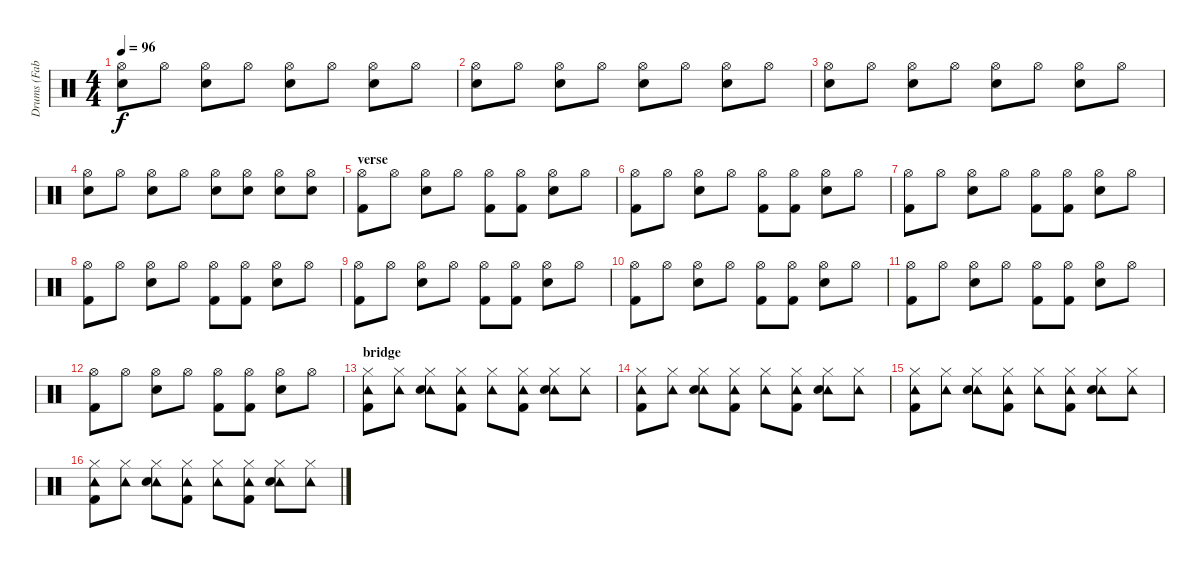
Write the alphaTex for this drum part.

\track ("Drums (Fab Moretti)" "Drums (Fab") {instrument percussion}
\staff {score}
\articulation defaults
\ts (4 4)
\tempo 96
\clef neutral
\ks c
("Hi-Hat (open)" "Snare (hit) 2").8{dy f} "Hi-Hat (open)".8 ("Hi-Hat (open)" "Snare (hit) 2").8 "Hi-Hat (open)".8 ("Hi-Hat (open)" "Snare (hit) 2").8 "Hi-Hat (open)".8 ("Hi-Hat (open)" "Snare (hit) 2").8 "Hi-Hat (open)".8 |
("Hi-Hat (open)" "Snare (hit) 2").8 "Hi-Hat (open)".8 ("Hi-Hat (open)" "Snare (hit) 2").8 "Hi-Hat (open)".8 ("Hi-Hat (open)" "Snare (hit) 2").8 "Hi-Hat (open)".8 ("Hi-Hat (open)" "Snare (hit) 2").8 "Hi-Hat (open)".8 |
("Hi-Hat (open)" "Snare (hit) 2").8 "Hi-Hat (open)".8 ("Hi-Hat (open)" "Snare (hit) 2").8 "Hi-Hat (open)".8 ("Hi-Hat (open)" "Snare (hit) 2").8 "Hi-Hat (open)".8 ("Hi-Hat (open)" "Snare (hit) 2").8 "Hi-Hat (open)".8 |
("Hi-Hat (open)" "Snare (hit) 2").8 "Hi-Hat (open)".8 ("Hi-Hat (open)" "Snare (hit) 2").8 "Hi-Hat (open)".8 ("Hi-Hat (open)" "Snare (hit) 2").8 ("Hi-Hat (open)" "Snare (hit) 2").8 ("Hi-Hat (open)" "Snare (hit) 2").8 ("Hi-Hat (open)" "Snare (hit) 2").8 |
\section ("" "verse")
("Hi-Hat (open)" "Kick (hit) 2").8 "Hi-Hat (open)".8 ("Hi-Hat (open)" "Snare (hit) 2").8 "Hi-Hat (open)".8 ("Hi-Hat (open)" "Kick (hit) 2").8 ("Hi-Hat (open)" "Kick (hit) 2").8 ("Hi-Hat (open)" "Snare (hit) 2").8 "Hi-Hat (open)".8 |
("Hi-Hat (open)" "Kick (hit) 2").8 "Hi-Hat (open)".8 ("Hi-Hat (open)" "Snare (hit) 2").8 "Hi-Hat (open)".8 ("Hi-Hat (open)" "Kick (hit) 2").8 ("Hi-Hat (open)" "Kick (hit) 2").8 ("Hi-Hat (open)" "Snare (hit) 2").8 "Hi-Hat (open)".8 |
("Hi-Hat (open)" "Kick (hit) 2").8 "Hi-Hat (open)".8 ("Hi-Hat (open)" "Snare (hit) 2").8 "Hi-Hat (open)".8 ("Hi-Hat (open)" "Kick (hit) 2").8 ("Hi-Hat (open)" "Kick (hit) 2").8 ("Hi-Hat (open)" "Snare (hit) 2").8 "Hi-Hat (open)".8 |
("Hi-Hat (open)" "Kick (hit) 2").8 "Hi-Hat (open)".8 ("Hi-Hat (open)" "Snare (hit) 2").8 "Hi-Hat (open)".8 ("Hi-Hat (open)" "Kick (hit) 2").8 ("Hi-Hat (open)" "Kick (hit) 2").8 ("Hi-Hat (open)" "Snare (hit) 2").8 "Hi-Hat (open)".8 |
("Hi-Hat (open)" "Kick (hit) 2").8 "Hi-Hat (open)".8 ("Hi-Hat (open)" "Snare (hit) 2").8 "Hi-Hat (open)".8 ("Hi-Hat (open)" "Kick (hit) 2").8 ("Hi-Hat (open)" "Kick (hit) 2").8 ("Hi-Hat (open)" "Snare (hit) 2").8 "Hi-Hat (open)".8 |
("Hi-Hat (open)" "Kick (hit) 2").8 "Hi-Hat (open)".8 ("Hi-Hat (open)" "Snare (hit) 2").8 "Hi-Hat (open)".8 ("Hi-Hat (open)" "Kick (hit) 2").8 ("Hi-Hat (open)" "Kick (hit) 2").8 ("Hi-Hat (open)" "Snare (hit) 2").8 "Hi-Hat (open)".8 |
("Hi-Hat (open)" "Kick (hit) 2").8 "Hi-Hat (open)".8 ("Hi-Hat (open)" "Snare (hit) 2").8 "Hi-Hat (open)".8 ("Hi-Hat (open)" "Kick (hit) 2").8 ("Hi-Hat (open)" "Kick (hit) 2").8 ("Hi-Hat (open)" "Snare (hit) 2").8 "Hi-Hat (open)".8 |
("Hi-Hat (open)" "Kick (hit) 2").8 "Hi-Hat (open)".8 ("Hi-Hat (open)" "Snare (hit) 2").8 "Hi-Hat (open)".8 ("Hi-Hat (open)" "Kick (hit) 2").8 ("Hi-Hat (open)" "Kick (hit) 2").8 ("Hi-Hat (open)" "Snare (hit) 2").8 "Hi-Hat (open)".8 |
\section ("" "bridge")
("Tambourine (hit)" "Kick (hit) 2" "Hi-Hat (closed)").8 ("Tambourine (hit)" "Hi-Hat (closed)").8 ("Tambourine (hit)" "Snare (hit) 2" "Hi-Hat (closed)").8 ("Tambourine (hit)" "Kick (hit) 2" "Hi-Hat (closed)").8 ("Tambourine (hit)" "Hi-Hat (closed)").8 ("Tambourine (hit)" "Kick (hit) 2" "Hi-Hat (closed)").8 ("Tambourine (hit)" "Snare (hit) 2" "Hi-Hat (closed)").8 ("Tambourine (hit)" "Hi-Hat (closed)").8 |
("Tambourine (hit)" "Kick (hit) 2" "Hi-Hat (closed)").8 ("Tambourine (hit)" "Hi-Hat (closed)").8 ("Tambourine (hit)" "Snare (hit) 2" "Hi-Hat (closed)").8 ("Tambourine (hit)" "Kick (hit) 2" "Hi-Hat (closed)").8 ("Tambourine (hit)" "Hi-Hat (closed)").8 ("Tambourine (hit)" "Kick (hit) 2" "Hi-Hat (closed)").8 ("Tambourine (hit)" "Snare (hit) 2" "Hi-Hat (closed)").8 ("Tambourine (hit)" "Hi-Hat (closed)").8 |
("Tambourine (hit)" "Kick (hit) 2" "Hi-Hat (closed)").8 ("Tambourine (hit)" "Hi-Hat (closed)").8 ("Tambourine (hit)" "Snare (hit) 2" "Hi-Hat (closed)").8 ("Tambourine (hit)" "Kick (hit) 2" "Hi-Hat (closed)").8 ("Tambourine (hit)" "Hi-Hat (closed)").8 ("Tambourine (hit)" "Kick (hit) 2" "Hi-Hat (closed)").8 ("Tambourine (hit)" "Snare (hit) 2" "Hi-Hat (closed)").8 ("Tambourine (hit)" "Hi-Hat (closed)").8 |
("Tambourine (hit)" "Kick (hit) 2" "Hi-Hat (closed)").8 ("Tambourine (hit)" "Hi-Hat (closed)").8 ("Tambourine (hit)" "Snare (hit) 2" "Hi-Hat (closed)").8 ("Tambourine (hit)" "Kick (hit) 2" "Hi-Hat (closed)").8 ("Tambourine (hit)" "Hi-Hat (closed)").8 ("Tambourine (hit)" "Kick (hit) 2" "Hi-Hat (closed)").8 ("Tambourine (hit)" "Snare (hit) 2" "Hi-Hat (closed)").8 ("Tambourine (hit)" "Hi-Hat (closed)").8
